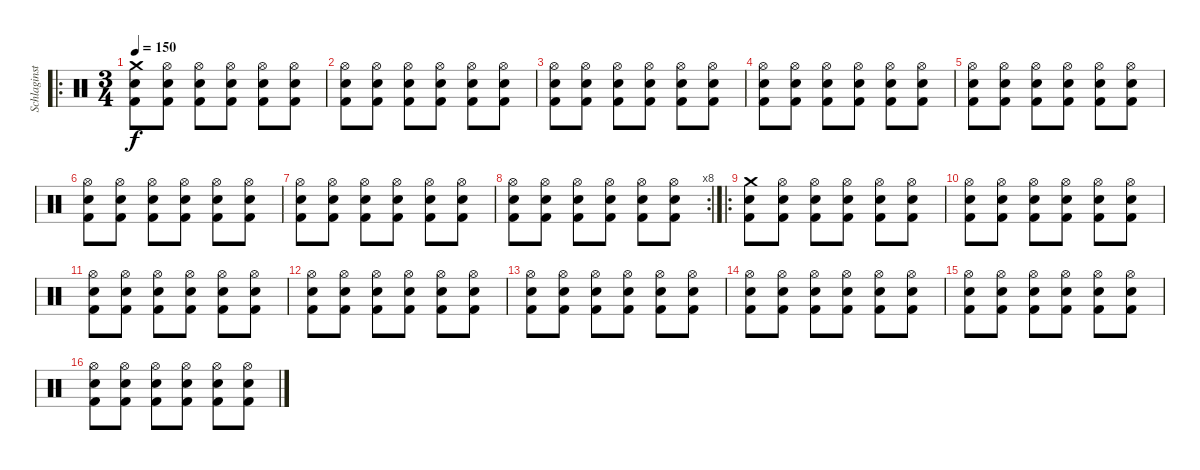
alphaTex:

\track ("Schlaginstrumente - Auswahl" "Schlaginst") {instrument percussion}
\staff {score}
\articulation defaults
\ro
\ts (3 4)
\tempo 150
\clef neutral
\ks c
("Crash medium (hit)" "Electric Snare (hit)" "Kick (hit) 2").8{dy f} ("Hi-Hat (open)" "Electric Snare (hit)" "Kick (hit) 2").8 ("Hi-Hat (open)" "Electric Snare (hit)" "Kick (hit) 2").8 ("Hi-Hat (open)" "Electric Snare (hit)" "Kick (hit) 2").8 ("Hi-Hat (open)" "Electric Snare (hit)" "Kick (hit) 2").8 ("Hi-Hat (open)" "Electric Snare (hit)" "Kick (hit) 2").8 |
("Hi-Hat (open)" "Electric Snare (hit)" "Kick (hit) 2").8 ("Hi-Hat (open)" "Electric Snare (hit)" "Kick (hit) 2").8 ("Hi-Hat (open)" "Electric Snare (hit)" "Kick (hit) 2").8 ("Hi-Hat (open)" "Electric Snare (hit)" "Kick (hit) 2").8 ("Hi-Hat (open)" "Electric Snare (hit)" "Kick (hit) 2").8 ("Hi-Hat (open)" "Electric Snare (hit)" "Kick (hit) 2").8 |
("Hi-Hat (open)" "Electric Snare (hit)" "Kick (hit) 2").8 ("Hi-Hat (open)" "Electric Snare (hit)" "Kick (hit) 2").8 ("Hi-Hat (open)" "Electric Snare (hit)" "Kick (hit) 2").8 ("Hi-Hat (open)" "Electric Snare (hit)" "Kick (hit) 2").8 ("Hi-Hat (open)" "Electric Snare (hit)" "Kick (hit) 2").8 ("Hi-Hat (open)" "Electric Snare (hit)" "Kick (hit) 2").8 |
("Hi-Hat (open)" "Electric Snare (hit)" "Kick (hit) 2").8 ("Hi-Hat (open)" "Electric Snare (hit)" "Kick (hit) 2").8 ("Hi-Hat (open)" "Electric Snare (hit)" "Kick (hit) 2").8 ("Hi-Hat (open)" "Electric Snare (hit)" "Kick (hit) 2").8 ("Hi-Hat (open)" "Electric Snare (hit)" "Kick (hit) 2").8 ("Hi-Hat (open)" "Electric Snare (hit)" "Kick (hit) 2").8 |
("Hi-Hat (open)" "Electric Snare (hit)" "Kick (hit) 2").8 ("Hi-Hat (open)" "Electric Snare (hit)" "Kick (hit) 2").8 ("Hi-Hat (open)" "Electric Snare (hit)" "Kick (hit) 2").8 ("Hi-Hat (open)" "Electric Snare (hit)" "Kick (hit) 2").8 ("Hi-Hat (open)" "Electric Snare (hit)" "Kick (hit) 2").8 ("Hi-Hat (open)" "Electric Snare (hit)" "Kick (hit) 2").8 |
("Hi-Hat (open)" "Electric Snare (hit)" "Kick (hit) 2").8 ("Hi-Hat (open)" "Electric Snare (hit)" "Kick (hit) 2").8 ("Hi-Hat (open)" "Electric Snare (hit)" "Kick (hit) 2").8 ("Hi-Hat (open)" "Electric Snare (hit)" "Kick (hit) 2").8 ("Hi-Hat (open)" "Electric Snare (hit)" "Kick (hit) 2").8 ("Hi-Hat (open)" "Electric Snare (hit)" "Kick (hit) 2").8 |
("Hi-Hat (open)" "Electric Snare (hit)" "Kick (hit) 2").8 ("Hi-Hat (open)" "Electric Snare (hit)" "Kick (hit) 2").8 ("Hi-Hat (open)" "Electric Snare (hit)" "Kick (hit) 2").8 ("Hi-Hat (open)" "Electric Snare (hit)" "Kick (hit) 2").8 ("Hi-Hat (open)" "Electric Snare (hit)" "Kick (hit) 2").8 ("Hi-Hat (open)" "Electric Snare (hit)" "Kick (hit) 2").8 |
\rc 8
("Hi-Hat (open)" "Electric Snare (hit)" "Kick (hit) 2").8 ("Hi-Hat (open)" "Electric Snare (hit)" "Kick (hit) 2").8 ("Hi-Hat (open)" "Electric Snare (hit)" "Kick (hit) 2").8 ("Hi-Hat (open)" "Electric Snare (hit)" "Kick (hit) 2").8 ("Hi-Hat (open)" "Electric Snare (hit)" "Kick (hit) 2").8 ("Hi-Hat (open)" "Electric Snare (hit)" "Kick (hit) 2").8 |
\ro
("Crash medium (hit)" "Electric Snare (hit)" "Kick (hit) 2").8 ("Hi-Hat (open)" "Electric Snare (hit)" "Kick (hit) 2").8 ("Hi-Hat (open)" "Electric Snare (hit)" "Kick (hit) 2").8 ("Hi-Hat (open)" "Electric Snare (hit)" "Kick (hit) 2").8 ("Hi-Hat (open)" "Electric Snare (hit)" "Kick (hit) 2").8 ("Hi-Hat (open)" "Electric Snare (hit)" "Kick (hit) 2").8 |
("Hi-Hat (open)" "Electric Snare (hit)" "Kick (hit) 2").8 ("Hi-Hat (open)" "Electric Snare (hit)" "Kick (hit) 2").8 ("Hi-Hat (open)" "Electric Snare (hit)" "Kick (hit) 2").8 ("Hi-Hat (open)" "Electric Snare (hit)" "Kick (hit) 2").8 ("Hi-Hat (open)" "Electric Snare (hit)" "Kick (hit) 2").8 ("Hi-Hat (open)" "Electric Snare (hit)" "Kick (hit) 2").8 |
("Hi-Hat (open)" "Electric Snare (hit)" "Kick (hit) 2").8 ("Hi-Hat (open)" "Electric Snare (hit)" "Kick (hit) 2").8 ("Hi-Hat (open)" "Electric Snare (hit)" "Kick (hit) 2").8 ("Hi-Hat (open)" "Electric Snare (hit)" "Kick (hit) 2").8 ("Hi-Hat (open)" "Electric Snare (hit)" "Kick (hit) 2").8 ("Hi-Hat (open)" "Electric Snare (hit)" "Kick (hit) 2").8 |
("Hi-Hat (open)" "Electric Snare (hit)" "Kick (hit) 2").8 ("Hi-Hat (open)" "Electric Snare (hit)" "Kick (hit) 2").8 ("Hi-Hat (open)" "Electric Snare (hit)" "Kick (hit) 2").8 ("Hi-Hat (open)" "Electric Snare (hit)" "Kick (hit) 2").8 ("Hi-Hat (open)" "Electric Snare (hit)" "Kick (hit) 2").8 ("Hi-Hat (open)" "Electric Snare (hit)" "Kick (hit) 2").8 |
("Hi-Hat (open)" "Electric Snare (hit)" "Kick (hit) 2").8 ("Hi-Hat (open)" "Electric Snare (hit)" "Kick (hit) 2").8 ("Hi-Hat (open)" "Electric Snare (hit)" "Kick (hit) 2").8 ("Hi-Hat (open)" "Electric Snare (hit)" "Kick (hit) 2").8 ("Hi-Hat (open)" "Electric Snare (hit)" "Kick (hit) 2").8 ("Hi-Hat (open)" "Electric Snare (hit)" "Kick (hit) 2").8 |
("Hi-Hat (open)" "Electric Snare (hit)" "Kick (hit) 2").8 ("Hi-Hat (open)" "Electric Snare (hit)" "Kick (hit) 2").8 ("Hi-Hat (open)" "Electric Snare (hit)" "Kick (hit) 2").8 ("Hi-Hat (open)" "Electric Snare (hit)" "Kick (hit) 2").8 ("Hi-Hat (open)" "Electric Snare (hit)" "Kick (hit) 2").8 ("Hi-Hat (open)" "Electric Snare (hit)" "Kick (hit) 2").8 |
("Hi-Hat (open)" "Electric Snare (hit)" "Kick (hit) 2").8 ("Hi-Hat (open)" "Electric Snare (hit)" "Kick (hit) 2").8 ("Hi-Hat (open)" "Electric Snare (hit)" "Kick (hit) 2").8 ("Hi-Hat (open)" "Electric Snare (hit)" "Kick (hit) 2").8 ("Hi-Hat (open)" "Electric Snare (hit)" "Kick (hit) 2").8 ("Hi-Hat (open)" "Electric Snare (hit)" "Kick (hit) 2").8 |
("Hi-Hat (open)" "Electric Snare (hit)" "Kick (hit) 2").8 ("Hi-Hat (open)" "Electric Snare (hit)" "Kick (hit) 2").8 ("Hi-Hat (open)" "Electric Snare (hit)" "Kick (hit) 2").8 ("Hi-Hat (open)" "Electric Snare (hit)" "Kick (hit) 2").8 ("Hi-Hat (open)" "Electric Snare (hit)" "Kick (hit) 2").8 ("Hi-Hat (open)" "Electric Snare (hit)" "Kick (hit) 2").8
